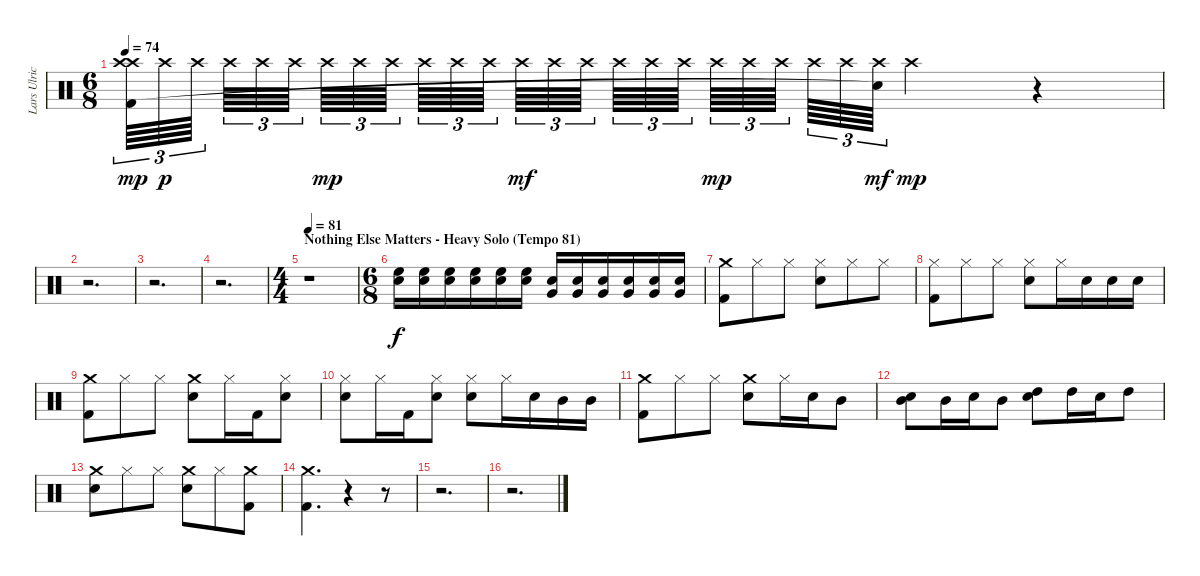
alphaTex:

\track ("Lars Ulrich (Drums)" "Lars Ulric") {instrument percussion}
\staff {score}
\articulation defaults
\ts (6 8)
\tempo 74
\clef neutral
\ks c
("Crash high (hit)" "Kick (hit) 2" "Crash high (hit)").64{tu (3 2) dy mp} "Crash high (hit)".64{tu (3 2) dy p} "Crash high (hit)".64{tu (3 2)} "Crash high (hit)".64{tu (3 2)} "Crash high (hit)".64{tu (3 2)} "Crash high (hit)".64{tu (3 2)} "Crash high (hit)".64{tu (3 2) dy mp} "Crash high (hit)".64{tu (3 2)} "Crash high (hit)".64{tu (3 2)} "Crash high (hit)".64{tu (3 2)} "Crash high (hit)".64{tu (3 2)} "Crash high (hit)".64{tu (3 2)} "Crash high (hit)".64{tu (3 2) dy mf} "Crash high (hit)".64{tu (3 2)} "Crash high (hit)".64{tu (3 2)} "Crash high (hit)".64{tu (3 2)} "Crash high (hit)".64{tu (3 2)} "Crash high (hit)".64{tu (3 2)} "Crash high (hit)".64{tu (3 2) dy mp} "Crash high (hit)".64{tu (3 2)} "Crash high (hit)".64{tu (3 2)} "Crash high (hit)".64{tu (3 2)} "Crash high (hit)".64{tu (3 2)} ("Crash high (hit)" "Snare (hit)"{t}).64{tu (3 2) dy mf} "Crash high (hit)".4{dy mp} r.4 |
r.2{d} |
r.2{d} |
r.2{d} |
\ts (4 4)
\section ("" "Nothing Else Matters - Heavy Solo (Tempo 81)")
\tempo 81
r.1 |
\ts (6 8)
("High Floor Tom (hit)" "Snare (hit) 2").16{dy f} ("High Floor Tom (hit)" "Snare (hit) 2").16 ("High Floor Tom (hit)" "Snare (hit) 2").16 ("High Floor Tom (hit)" "Snare (hit) 2").16 ("High Floor Tom (hit)" "Snare (hit) 2").16 ("High Floor Tom (hit)" "Snare (hit) 2").16 ("Very Low Tom (hit)" "Snare (hit) 2").16 ("Very Low Tom (hit)" "Snare (hit) 2").16 ("Very Low Tom (hit)" "Snare (hit) 2").16 ("Very Low Tom (hit)" "Snare (hit) 2").16 ("Very Low Tom (hit)" "Snare (hit) 2").16 ("Very Low Tom (hit)" "Snare (hit) 2").16 |
("Kick (hit) 2" "Crash medium (hit)").8 "Hi-Hat (closed)".8 "Hi-Hat (closed)".8 ("Snare (hit) 2" "Hi-Hat (closed)").8 "Hi-Hat (closed)".8 "Hi-Hat (closed)".8 |
("Kick (hit) 2" "Hi-Hat (closed)").8 "Hi-Hat (closed)".8 "Hi-Hat (closed)".8 ("Snare (hit) 2" "Hi-Hat (closed)").8 "Hi-Hat (closed)".16 "Snare (hit) 2".16 "Snare (hit) 2".16 "Snare (hit) 2".16 |
("Kick (hit) 2" "Crash medium (hit)").8 "Hi-Hat (closed)".8 "Hi-Hat (closed)".8 ("Snare (hit) 2" "Crash medium (hit)").8 "Hi-Hat (closed)".16 "Kick (hit) 2".16 ("Snare (hit) 2" "Hi-Hat (closed)").8 |
("Snare (hit) 2" "Hi-Hat (closed)").8 "Hi-Hat (closed)".16 "Kick (hit) 2".16 ("Snare (hit) 2" "Hi-Hat (closed)").8 ("Snare (hit) 2" "Hi-Hat (closed)").8 "Hi-Hat (closed)".16 "Snare (hit) 2".16 "Mid Tom (hit)".16 "Mid Tom (hit)".16 |
("Kick (hit) 2" "Crash medium (hit)").8 "Hi-Hat (closed)".8 "Hi-Hat (closed)".8 ("Snare (hit) 2" "Crash medium (hit)").8 "Hi-Hat (closed)".16 "Snare (hit) 2".16 "Mid Tom (hit)".8 |
("Mid Tom (hit)" "Snare (hit) 2").8 "Mid Tom (hit)".16 "Snare (hit) 2".16 "Mid Tom (hit)".8 ("High Tom (hit)" "Snare (hit) 2").8 "High Tom (hit)".16 "Snare (hit) 2".16 "High Tom (hit)".8 |
("Snare (hit) 2" "Crash medium (hit)").8 "Hi-Hat (closed)".8 "Hi-Hat (closed)".8 ("Snare (hit) 2" "Crash medium (hit)").8 "Hi-Hat (closed)".8 ("Kick (hit) 2" "Crash medium (hit)").8 |
("Kick (hit) 2" "Crash medium (hit)").4{d} r.4 r.8 |
r.2{d} |
r.2{d}
